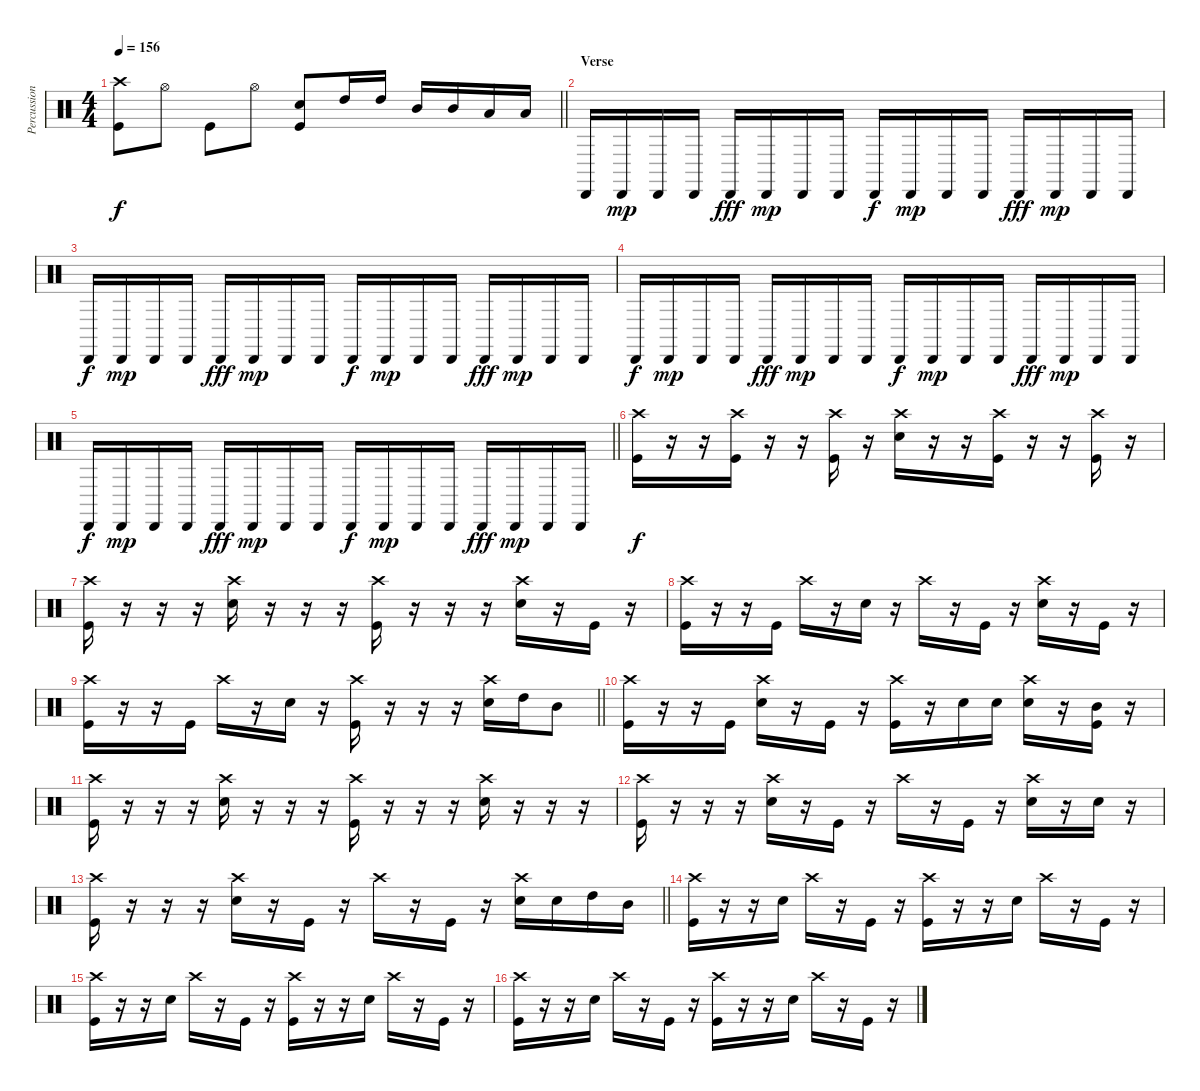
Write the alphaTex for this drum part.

\track ("Percussion" "Percussion") {instrument percussion}
\staff {score}
\articulation defaults
\ts (4 4)
\tempo 156
\clef neutral
\barLineRight lightlight
\ks c
("Crash high (hit)" "Kick (hit)").8{dy f} "Hi-Hat (open)".8 "Kick (hit)".8 "Hi-Hat (open)".8 ("Snare (hit) 2" "Kick (hit)").8 "High Tom (hit)".16 "High Tom (hit)".16 "Mid Tom (hit)".16 "Mid Tom (hit)".16 "Low Floor Tom (hit)".16 "Low Floor Tom (hit)".16 |
\section ("" "Verse")
"Cabasa (hit)".16 "Cabasa (hit)".16{dy mp} "Cabasa (hit)".16 "Cabasa (hit)".16 "Cabasa (hit)".16{dy fff} "Cabasa (hit)".16{dy mp} "Cabasa (hit)".16 "Cabasa (hit)".16 "Cabasa (hit)".16{dy f} "Cabasa (hit)".16{dy mp} "Cabasa (hit)".16 "Cabasa (hit)".16 "Cabasa (hit)".16{dy fff} "Cabasa (hit)".16{dy mp} "Cabasa (hit)".16 "Cabasa (hit)".16 |
"Cabasa (hit)".16{dy f} "Cabasa (hit)".16{dy mp} "Cabasa (hit)".16 "Cabasa (hit)".16 "Cabasa (hit)".16{dy fff} "Cabasa (hit)".16{dy mp} "Cabasa (hit)".16 "Cabasa (hit)".16 "Cabasa (hit)".16{dy f} "Cabasa (hit)".16{dy mp} "Cabasa (hit)".16 "Cabasa (hit)".16 "Cabasa (hit)".16{dy fff} "Cabasa (hit)".16{dy mp} "Cabasa (hit)".16 "Cabasa (hit)".16 |
"Cabasa (hit)".16{dy f} "Cabasa (hit)".16{dy mp} "Cabasa (hit)".16 "Cabasa (hit)".16 "Cabasa (hit)".16{dy fff} "Cabasa (hit)".16{dy mp} "Cabasa (hit)".16 "Cabasa (hit)".16 "Cabasa (hit)".16{dy f} "Cabasa (hit)".16{dy mp} "Cabasa (hit)".16 "Cabasa (hit)".16 "Cabasa (hit)".16{dy fff} "Cabasa (hit)".16{dy mp} "Cabasa (hit)".16 "Cabasa (hit)".16 |
\barLineRight lightlight "Cabasa (hit)".16{dy f} "Cabasa (hit)".16{dy mp} "Cabasa (hit)".16 "Cabasa (hit)".16 "Cabasa (hit)".16{dy fff} "Cabasa (hit)".16{dy mp} "Cabasa (hit)".16 "Cabasa (hit)".16 "Cabasa (hit)".16{dy f} "Cabasa (hit)".16{dy mp} "Cabasa (hit)".16 "Cabasa (hit)".16 "Cabasa (hit)".16{dy fff} "Cabasa (hit)".16{dy mp} "Cabasa (hit)".16 "Cabasa (hit)".16
|
("Crash high (hit)" "Kick (hit)").16{dy f volume 12} r.16 r.16 ("Crash high (hit)" "Kick (hit)").16 r.16 r.16 ("Crash high (hit)" "Kick (hit)").16 r.16 ("Crash high (hit)" "Snare (hit) 2").16 r.16 r.16 ("Crash high (hit)" "Kick (hit)").16 r.16 r.16 ("Crash high (hit)" "Kick (hit)").16 r.16 |
("Crash high (hit)" "Kick (hit)").16 r.16 r.16 r.16 ("Crash high (hit)" "Snare (hit) 2").16 r.16 r.16 r.16 ("Crash high (hit)" "Kick (hit)").16 r.16 r.16 r.16 ("Crash high (hit)" "Snare (hit) 2").16 r.16 "Kick (hit)".16 r.16 |
("Crash high (hit)" "Kick (hit)").16 r.16 r.16 "Kick (hit)".16 "Crash high (hit)".16 r.16 "Snare (hit) 2".16 r.16 "Crash high (hit)".16 r.16 "Kick (hit)".16 r.16 ("Crash high (hit)" "Snare (hit) 2").16 r.16 "Kick (hit)".16 r.16 |
\barLineRight lightlight
("Crash high (hit)" "Kick (hit)").16 r.16 r.16 "Kick (hit)".16 "Crash high (hit)".16 r.16 "Snare (hit) 2".16 r.16 ("Crash high (hit)" "Kick (hit)").16 r.16 r.16 r.16 ("Crash high (hit)" "Snare (hit) 2").16 "High Tom (hit)".16 "Mid Tom (hit)".8 |
("Crash high (hit)" "Kick (hit)").16 r.16 r.16 "Kick (hit)".16 ("Crash high (hit)" "Snare (hit) 2").16 r.16 "Kick (hit)".16 r.16 ("Crash high (hit)" "Kick (hit)").16 r.16 "Snare (hit) 2".16 "Snare (hit) 2".16 ("Crash high (hit)" "Snare (hit) 2").16 r.16 ("Mid Tom (hit)" "Kick (hit)").16 r.16 |
("Crash high (hit)" "Kick (hit)").16 r.16 r.16 r.16 ("Crash high (hit)" "Snare (hit) 2").16 r.16 r.16 r.16 ("Crash high (hit)" "Kick (hit)").16 r.16 r.16 r.16 ("Crash high (hit)" "Snare (hit) 2").16 r.16 r.16 r.16 |
("Crash high (hit)" "Kick (hit)").16 r.16 r.16 r.16 ("Crash high (hit)" "Snare (hit) 2").16 r.16 "Kick (hit)".16 r.16 "Crash high (hit)".16 r.16 "Kick (hit)".16 r.16 ("Crash high (hit)" "Snare (hit) 2").16 r.16 "Snare (hit) 2".16 r.16 |
\barLineRight lightlight
("Crash high (hit)" "Kick (hit)").16 r.16 r.16 r.16 ("Crash high (hit)" "Snare (hit) 2").16 r.16 "Kick (hit)".16 r.16 "Crash high (hit)".16 r.16 "Kick (hit)".16 r.16 ("Crash high (hit)" "Snare (hit) 2").16 "Snare (hit) 2".16 "High Tom (hit)".16 "Mid Tom (hit)".16 |
("Crash high (hit)" "Kick (hit)").16 r.16 r.16 "Snare (hit) 2".16 "Crash high (hit)".16 r.16 "Kick (hit)".16 r.16 ("Crash high (hit)" "Kick (hit)").16 r.16 r.16 "Snare (hit) 2".16 "Crash high (hit)".16 r.16 "Kick (hit)".16 r.16 |
("Crash high (hit)" "Kick (hit)").16 r.16 r.16 "Snare (hit) 2".16 "Crash high (hit)".16 r.16 "Kick (hit)".16 r.16 ("Crash high (hit)" "Kick (hit)").16 r.16 r.16 "Snare (hit) 2".16 "Crash high (hit)".16 r.16 "Kick (hit)".16 r.16 |
("Crash high (hit)" "Kick (hit)").16 r.16 r.16 "Snare (hit) 2".16 "Crash high (hit)".16 r.16 "Kick (hit)".16 r.16 ("Crash high (hit)" "Kick (hit)").16 r.16 r.16 "Snare (hit) 2".16 "Crash high (hit)".16 r.16 "Kick (hit)".16 r.16
